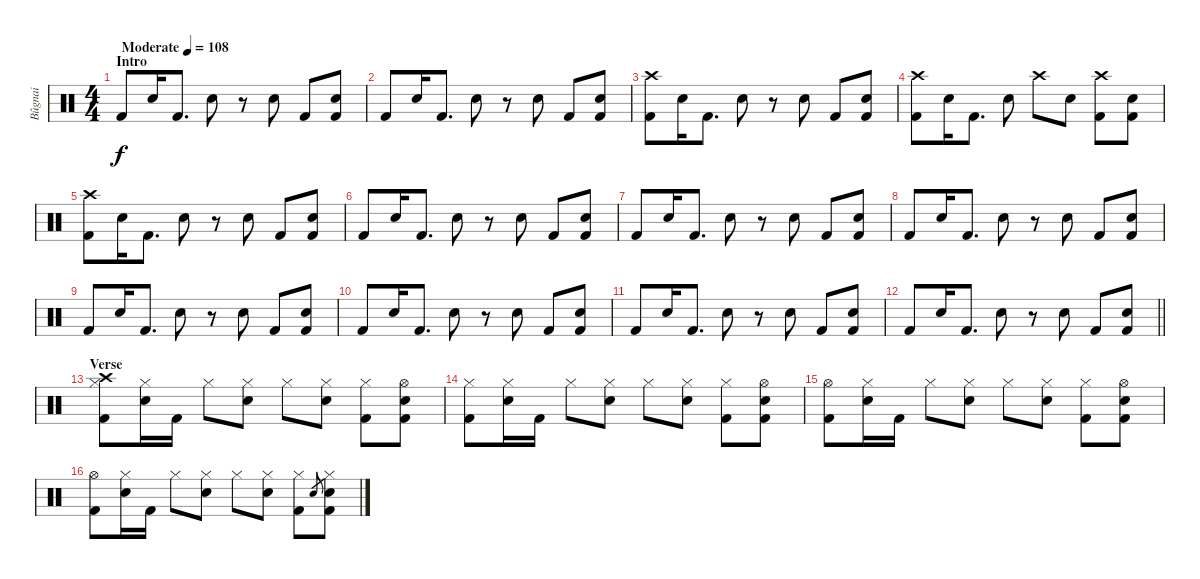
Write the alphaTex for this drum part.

\track ("Bûgnai" "Bûgnai") {instrument percussion}
\staff {score}
\articulation defaults
\ts (4 4)
\section ("" "Intro")
\tempo (108 "Moderate")
\clef neutral
\ks c "Kick (hit) 2".8{dy f} "Snare (hit) 2".16 "Kick (hit) 2".8{d} "Snare (hit) 2".8
r.8 "Snare (hit) 2".8 "Kick (hit) 2".8 ("Snare (hit) 2" "Kick (hit) 2").8 |
"Kick (hit) 2".8 "Snare (hit) 2".16 "Kick (hit) 2".8{d} "Snare (hit) 2".8 r.8 "Snare (hit) 2".8 "Kick (hit) 2".8 ("Snare (hit) 2" "Kick (hit) 2").8 |
("Crash high (hit)" "Kick (hit) 2").8 "Snare (hit) 2".16 "Kick (hit) 2".8{d} "Snare (hit) 2".8 r.8 "Snare (hit) 2".8 "Kick (hit) 2".8 ("Snare (hit) 2" "Kick (hit) 2").8 |
("Crash high (hit)" "Kick (hit) 2").8 "Snare (hit) 2".16 "Kick (hit) 2".8{d} "Snare (hit) 2".8 "Crash high (hit)".8 "Snare (hit) 2".8 ("Crash high (hit)" "Kick (hit) 2").8 ("Snare (hit) 2" "Kick (hit) 2").8 |
("Crash high (hit)" "Kick (hit) 2").8 "Snare (hit) 2".16 "Kick (hit) 2".8{d} "Snare (hit) 2".8 r.8 "Snare (hit) 2".8 "Kick (hit) 2".8 ("Snare (hit) 2" "Kick (hit) 2").8 |
"Kick (hit) 2".8 "Snare (hit) 2".16 "Kick (hit) 2".8{d} "Snare (hit) 2".8 r.8 "Snare (hit) 2".8 "Kick (hit) 2".8 ("Snare (hit) 2" "Kick (hit) 2").8 |
"Kick (hit) 2".8 "Snare (hit) 2".16 "Kick (hit) 2".8{d} "Snare (hit) 2".8 r.8 "Snare (hit) 2".8 "Kick (hit) 2".8 ("Snare (hit) 2" "Kick (hit) 2").8 |
"Kick (hit) 2".8 "Snare (hit) 2".16 "Kick (hit) 2".8{d} "Snare (hit) 2".8 r.8 "Snare (hit) 2".8 "Kick (hit) 2".8 ("Snare (hit) 2" "Kick (hit) 2").8 |
"Kick (hit) 2".8 "Snare (hit) 2".16 "Kick (hit) 2".8{d} "Snare (hit) 2".8 r.8 "Snare (hit) 2".8 "Kick (hit) 2".8 ("Snare (hit) 2" "Kick (hit) 2").8 |
"Kick (hit) 2".8 "Snare (hit) 2".16 "Kick (hit) 2".8{d} "Snare (hit) 2".8 r.8 "Snare (hit) 2".8 "Kick (hit) 2".8 ("Snare (hit) 2" "Kick (hit) 2").8 |
"Kick (hit) 2".8 "Snare (hit) 2".16 "Kick (hit) 2".8{d} "Snare (hit) 2".8 r.8 "Snare (hit) 2".8 "Kick (hit) 2".8 ("Snare (hit) 2" "Kick (hit) 2").8 |
\barLineRight lightlight "Kick (hit) 2".8 "Snare (hit) 2".16 "Kick (hit) 2".8{d} "Snare (hit) 2".8
r.8 "Snare (hit) 2".8 "Kick (hit) 2".8 ("Snare (hit) 2" "Kick (hit) 2").8 |
\section ("" "Verse")
("Crash high (hit)" "Hi-Hat (closed)" "Kick (hit) 2").8 ("Hi-Hat (closed)" "Snare (hit) 2").16 "Kick (hit) 2".16 "Hi-Hat (closed)".8 ("Hi-Hat (closed)" "Snare (hit) 2").8 "Hi-Hat (closed)".8 ("Hi-Hat (closed)" "Snare (hit) 2").8 ("Hi-Hat (closed)" "Kick (hit) 2").8 ("Hi-Hat (open)" "Snare (hit) 2" "Kick (hit) 2").8 |
("Hi-Hat (closed)" "Kick (hit) 2").8 ("Hi-Hat (closed)" "Snare (hit) 2").16 "Kick (hit) 2".16 "Hi-Hat (closed)".8 ("Hi-Hat (closed)" "Snare (hit) 2").8 "Hi-Hat (closed)".8 ("Hi-Hat (closed)" "Snare (hit) 2").8 ("Hi-Hat (closed)" "Kick (hit) 2").8 ("Hi-Hat (open)" "Snare (hit) 2" "Kick (hit) 2").8 |
("Hi-Hat (open)" "Kick (hit) 2").8 ("Hi-Hat (closed)" "Snare (hit) 2").16 "Kick (hit) 2".16 "Hi-Hat (closed)".8 ("Hi-Hat (closed)" "Snare (hit) 2").8 "Hi-Hat (closed)".8 ("Hi-Hat (closed)" "Snare (hit) 2").8 ("Hi-Hat (closed)" "Kick (hit) 2").8 ("Hi-Hat (open)" "Snare (hit) 2" "Kick (hit) 2").8 |
("Hi-Hat (open)" "Kick (hit) 2").8 ("Hi-Hat (closed)" "Snare (hit) 2").16 "Kick (hit) 2".16 "Hi-Hat (closed)".8 ("Hi-Hat (closed)" "Snare (hit) 2").8 "Hi-Hat (closed)".8 ("Hi-Hat (closed)" "Snare (hit) 2").8 ("Hi-Hat (closed)" "Kick (hit) 2").8 "Snare (hit) 2".8{gr} ("Hi-Hat (closed)" "Snare (hit) 2" "Kick (hit) 2").8
